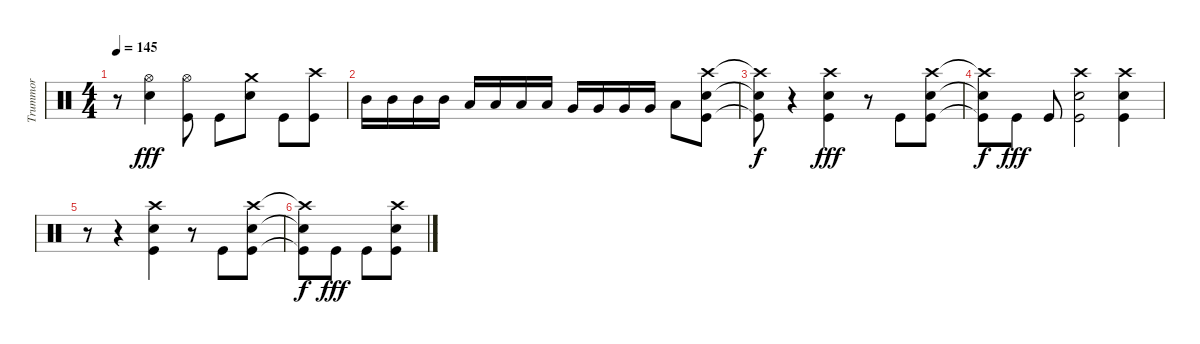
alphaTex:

\track ("Trummor" "Trummor") {instrument percussion}
\staff {score}
\articulation defaults
\ts (4 4)
\tempo 145
\clef neutral
\ks c
r.8{dy fff} ("Hi-Hat (open)" "Snare (hit) 2").4 ("Hi-Hat (open)" "Kick (hit)").8 "Kick (hit)".8 ("Crash medium (hit)" "Snare (hit) 2").8 "Kick (hit)".8 ("Crash high (hit)" "Kick (hit)").8 |
"Mid Tom (hit)".16 "Mid Tom (hit)".16 "Mid Tom (hit)".16 "Mid Tom (hit)".16 "Low Tom (hit)".16 "Low Tom (hit)".16 "Low Tom (hit)".16 "Low Tom (hit)".16 "Very Low Tom (hit)".16 "Very Low Tom (hit)".16 "Very Low Tom (hit)".16 "Very Low Tom (hit)".16 "Low Floor Tom (hit)".8 ("Snare (hit) 2" "Crash high (hit)" "Kick (hit)").8 |
("Snare (hit) 2"{t} "Crash high (hit)"{t} "Kick (hit)"{t}).8{dy f} r.4 ("Snare (hit) 2" "Crash high (hit)" "Kick (hit)").4{dy fff} r.8 "Kick (hit)".8 ("Snare (hit) 2" "Crash high (hit)" "Kick (hit)").8 |
("Snare (hit) 2"{t} "Crash high (hit)"{t} "Kick (hit)"{t}).8{dy f} "Kick (hit)".8{dy fff} "Kick (hit)".8 ("Snare (hit) 2" "Crash high (hit)" "Kick (hit)").2 ("Snare (hit) 2" "Crash high (hit)" "Kick (hit)").4 |
r.8 r.4 ("Snare (hit) 2" "Crash high (hit)" "Kick (hit)").4 r.8 "Kick (hit)".8 ("Snare (hit) 2" "Crash high (hit)" "Kick (hit)").8 |
("Snare (hit) 2"{t} "Crash high (hit)"{t} "Kick (hit)"{t}).8{dy f} "Kick (hit)".8{dy fff} "Kick (hit)".8 ("Snare (hit) 2" "Crash high (hit)" "Kick (hit)").8
